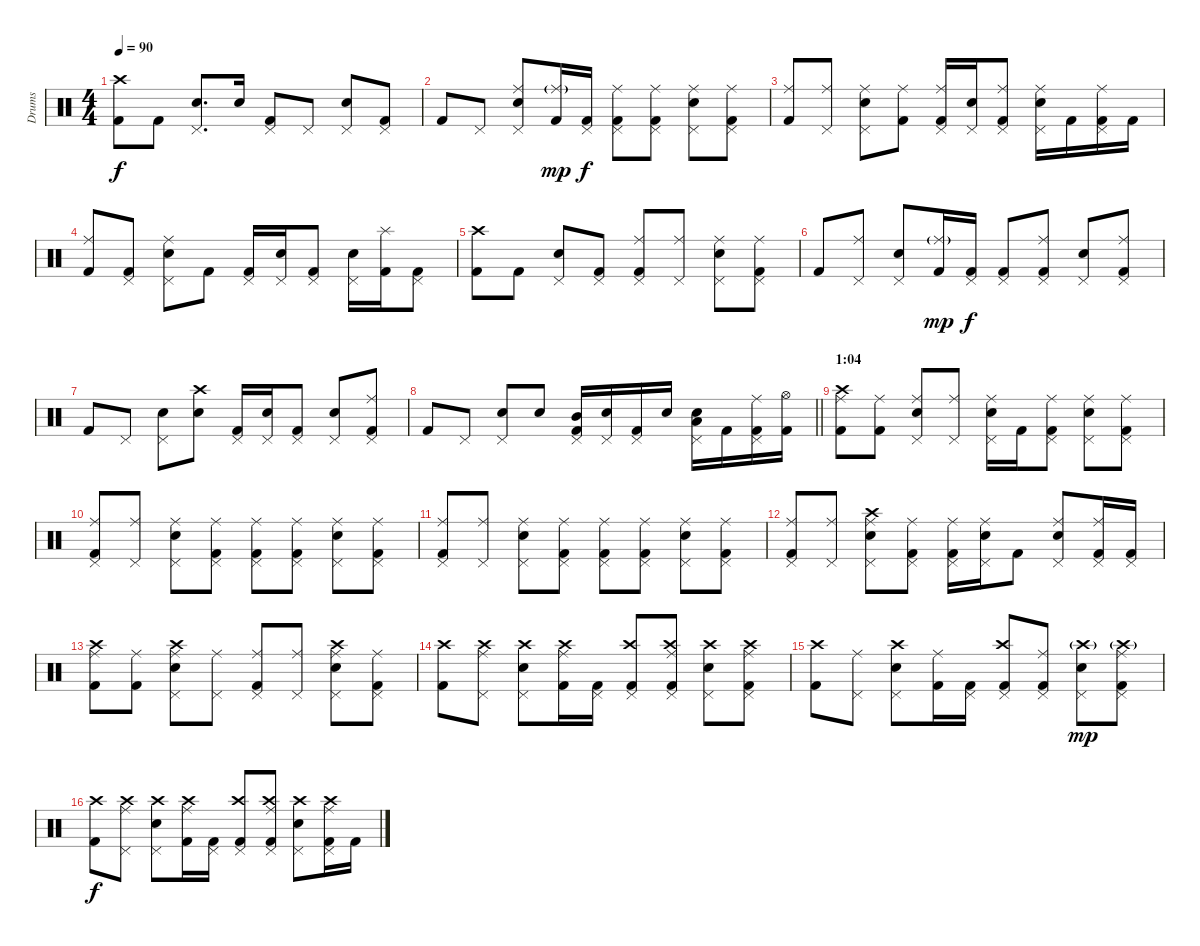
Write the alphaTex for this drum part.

\track ("Drums" "Drums") {instrument percussion}
\staff {score}
\articulation defaults
\ts (4 4)
\tempo 90
\clef neutral
\ks c
("Kick (hit) 2" "Crash high (hit)").8{dy f} "Kick (hit) 2".8 ("Snare (hit) 2" "Pedal Hi-Hat (hit)").8{d} "Snare (hit) 2".16 ("Kick (hit) 2" "Pedal Hi-Hat (hit)").8 "Pedal Hi-Hat (hit)".8 ("Snare (hit) 2" "Pedal Hi-Hat (hit)").8 ("Kick (hit) 2" "Pedal Hi-Hat (hit)").8 |
"Kick (hit) 2".8 "Pedal Hi-Hat (hit)".8 ("Snare (hit) 2" "Pedal Hi-Hat (hit)" "Ride (middle)").8 ("Kick (hit) 2" "Ride (middle)"{g}).16{dy mp} ("Kick (hit) 2" "Pedal Hi-Hat (hit)").16{dy f} ("Kick (hit) 2" "Pedal Hi-Hat (hit)" "Ride (middle)").8 ("Kick (hit) 2" "Pedal Hi-Hat (hit)" "Ride (middle)").8 ("Snare (hit) 2" "Pedal Hi-Hat (hit)" "Ride (middle)").8 ("Kick (hit) 2" "Pedal Hi-Hat (hit)" "Ride (middle)").8 |
("Kick (hit) 2" "Ride (middle)").8 ("Pedal Hi-Hat (hit)" "Ride (middle)").8 ("Snare (hit) 2" "Pedal Hi-Hat (hit)" "Ride (middle)").8 ("Kick (hit) 2" "Ride (middle)").8 ("Kick (hit) 2" "Pedal Hi-Hat (hit)" "Ride (middle)").16 ("Snare (hit) 2" "Pedal Hi-Hat (hit)").16 ("Kick (hit) 2" "Pedal Hi-Hat (hit)" "Ride (middle)").8 ("Snare (hit) 2" "Pedal Hi-Hat (hit)" "Ride (middle)").16 "Kick (hit) 2".16 ("Kick (hit) 2" "Pedal Hi-Hat (hit)" "Ride (middle)").16 "Kick (hit) 2".16 |
("Kick (hit) 2" "Ride (middle)").8 ("Kick (hit) 2" "Pedal Hi-Hat (hit)").8 ("Snare (hit) 2" "Pedal Hi-Hat (hit)" "Ride (middle)").8 "Kick (hit) 2".8 ("Kick (hit) 2" "Pedal Hi-Hat (hit)").16 ("Snare (hit) 2" "Pedal Hi-Hat (hit)").16 ("Kick (hit) 2" "Pedal Hi-Hat (hit)").8 ("Snare (hit) 2" "Pedal Hi-Hat (hit)").16 ("Kick (hit) 2" "Splash (hit)").16 ("Kick (hit) 2" "Pedal Hi-Hat (hit)").8 |
("Kick (hit) 2" "Crash high (hit)").8 "Kick (hit) 2".8 ("Snare (hit) 2" "Pedal Hi-Hat (hit)").8 ("Kick (hit) 2" "Pedal Hi-Hat (hit)").8 ("Kick (hit) 2" "Pedal Hi-Hat (hit)" "Ride (middle)").8 ("Pedal Hi-Hat (hit)" "Ride (middle)").8 ("Snare (hit) 2" "Pedal Hi-Hat (hit)" "Ride (middle)").8 ("Kick (hit) 2" "Pedal Hi-Hat (hit)" "Ride (middle)").8 |
"Kick (hit) 2".8 ("Pedal Hi-Hat (hit)" "Ride (middle)").8 ("Snare (hit) 2" "Pedal Hi-Hat (hit)").8 ("Kick (hit) 2" "Ride (middle)"{g}).16{dy mp} ("Kick (hit) 2" "Pedal Hi-Hat (hit)").16{dy f} ("Kick (hit) 2" "Pedal Hi-Hat (hit)").8 ("Kick (hit) 2" "Pedal Hi-Hat (hit)" "Ride (middle)").8 ("Snare (hit) 2" "Pedal Hi-Hat (hit)").8 ("Kick (hit) 2" "Pedal Hi-Hat (hit)" "Ride (middle)").8 |
"Kick (hit) 2".8 "Pedal Hi-Hat (hit)".8 ("Snare (hit) 2" "Pedal Hi-Hat (hit)").8 ("Snare (hit) 2" "Crash high (hit)").8 ("Kick (hit) 2" "Pedal Hi-Hat (hit)").16 ("Snare (hit) 2" "Pedal Hi-Hat (hit)").16 ("Kick (hit) 2" "Pedal Hi-Hat (hit)").8 ("Snare (hit) 2" "Pedal Hi-Hat (hit)").8 ("Kick (hit) 2" "Pedal Hi-Hat (hit)" "Ride (middle)").8 |
\barLineRight lightlight "Kick (hit) 2".8 "Pedal Hi-Hat (hit)".8
("Snare (hit) 2" "Pedal Hi-Hat (hit)").8 "Snare (hit) 2".8 ("Kick (hit) 2" "Pedal Hi-Hat (hit)" "Mid Tom (hit)").16 ("Snare (hit) 2" "Pedal Hi-Hat (hit)").16 ("Kick (hit) 2" "Pedal Hi-Hat (hit)").16 "Snare (hit) 2".16 ("Snare (hit) 2" "Pedal Hi-Hat (hit)" "Low Tom (hit)").16 "Kick (hit) 2".16 ("Kick (hit) 2" "Pedal Hi-Hat (hit)" "Ride (middle)").16 ("Kick (hit) 2" "Hi-Hat (open)").16 |
\section ("" "1:04")
("Kick (hit) 2" "Crash high (hit)" "Ride (middle)").8 ("Kick (hit) 2" "Ride (middle)").8 ("Snare (hit) 2" "Pedal Hi-Hat (hit)" "Ride (middle)").8 ("Pedal Hi-Hat (hit)" "Ride (middle)").8 ("Snare (hit) 2" "Pedal Hi-Hat (hit)" "Ride (middle)").16 "Kick (hit) 2".16 ("Kick (hit) 2" "Pedal Hi-Hat (hit)" "Ride (middle)").8 ("Snare (hit) 2" "Pedal Hi-Hat (hit)" "Ride (middle)").8 ("Kick (hit) 2" "Pedal Hi-Hat (hit)" "Ride (middle)").8 |
("Kick (hit) 2" "Pedal Hi-Hat (hit)" "Ride (middle)").8 ("Pedal Hi-Hat (hit)" "Ride (middle)").8 ("Snare (hit) 2" "Pedal Hi-Hat (hit)" "Ride (middle)").8 ("Kick (hit) 2" "Pedal Hi-Hat (hit)" "Ride (middle)").8 ("Kick (hit) 2" "Pedal Hi-Hat (hit)" "Ride (middle)").8 ("Kick (hit) 2" "Pedal Hi-Hat (hit)" "Ride (middle)").8 ("Snare (hit) 2" "Pedal Hi-Hat (hit)" "Ride (middle)").8 ("Kick (hit) 2" "Pedal Hi-Hat (hit)" "Ride (middle)").8 |
("Kick (hit) 2" "Pedal Hi-Hat (hit)" "Ride (middle)").8 ("Pedal Hi-Hat (hit)" "Ride (middle)").8 ("Snare (hit) 2" "Pedal Hi-Hat (hit)" "Ride (middle)").8 ("Kick (hit) 2" "Pedal Hi-Hat (hit)" "Ride (middle)").8 ("Kick (hit) 2" "Pedal Hi-Hat (hit)" "Ride (middle)").8 ("Kick (hit) 2" "Pedal Hi-Hat (hit)" "Ride (middle)").8 ("Snare (hit) 2" "Pedal Hi-Hat (hit)" "Ride (middle)").8 ("Kick (hit) 2" "Pedal Hi-Hat (hit)" "Ride (middle)").8 |
("Kick (hit) 2" "Pedal Hi-Hat (hit)" "Ride (middle)").8 ("Pedal Hi-Hat (hit)" "Ride (middle)").8 ("Snare (hit) 2" "Pedal Hi-Hat (hit)" "Crash high (hit)" "Ride (middle)").8 ("Kick (hit) 2" "Pedal Hi-Hat (hit)" "Ride (middle)").8 ("Kick (hit) 2" "Pedal Hi-Hat (hit)" "Ride (middle)").16 ("Snare (hit) 2" "Pedal Hi-Hat (hit)" "Ride (middle)").16 "Kick (hit) 2".8 ("Snare (hit) 2" "Pedal Hi-Hat (hit)" "Ride (middle)").8 ("Kick (hit) 2" "Pedal Hi-Hat (hit)" "Ride (middle)").16 ("Kick (hit) 2" "Pedal Hi-Hat (hit)").16 |
("Kick (hit) 2" "Crash high (hit)" "Ride (middle)").8 ("Kick (hit) 2" "Ride (middle)").8 ("Snare (hit) 2" "Pedal Hi-Hat (hit)" "Crash high (hit)" "Ride (middle)").8 ("Pedal Hi-Hat (hit)" "Ride (middle)").8 ("Kick (hit) 2" "Pedal Hi-Hat (hit)" "Ride (middle)").8 ("Pedal Hi-Hat (hit)" "Ride (middle)").8 ("Snare (hit) 2" "Pedal Hi-Hat (hit)" "Crash high (hit)" "Ride (middle)").8 ("Kick (hit) 2" "Pedal Hi-Hat (hit)" "Ride (middle)").8 |
("Kick (hit) 2" "Crash high (hit)").8 ("Pedal Hi-Hat (hit)" "Crash high (hit)" "Ride (middle)").8 ("Snare (hit) 2" "Pedal Hi-Hat (hit)" "Crash high (hit)").8 ("Kick (hit) 2" "Crash high (hit)" "Ride (middle)").16 ("Kick (hit) 2" "Pedal Hi-Hat (hit)").16 ("Kick (hit) 2" "Pedal Hi-Hat (hit)" "Crash high (hit)").8 ("Kick (hit) 2" "Pedal Hi-Hat (hit)" "Crash high (hit)" "Ride (middle)").8 ("Snare (hit) 2" "Pedal Hi-Hat (hit)" "Crash high (hit)").8 ("Kick (hit) 2" "Pedal Hi-Hat (hit)" "Crash high (hit)" "Ride (middle)").8 |
("Kick (hit) 2" "Crash high (hit)").8 ("Pedal Hi-Hat (hit)" "Ride (middle)").8 ("Snare (hit) 2" "Pedal Hi-Hat (hit)" "Crash high (hit)").8 ("Kick (hit) 2" "Ride (middle)").16 ("Kick (hit) 2" "Pedal Hi-Hat (hit)").16 ("Kick (hit) 2" "Pedal Hi-Hat (hit)" "Crash high (hit)").8 ("Kick (hit) 2" "Pedal Hi-Hat (hit)" "Ride (middle)").8 ("Snare (hit) 2" "Pedal Hi-Hat (hit)" "Crash high (hit)"{g}).8{dy mp} ("Kick (hit) 2" "Pedal Hi-Hat (hit)" "Crash high (hit)"{g} "Ride (middle)").8 |
("Kick (hit) 2" "Crash high (hit)").8{dy f} ("Pedal Hi-Hat (hit)" "Crash high (hit)" "Ride (middle)").8 ("Snare (hit) 2" "Pedal Hi-Hat (hit)" "Crash high (hit)").8 ("Kick (hit) 2" "Crash high (hit)" "Ride (middle)").16 ("Kick (hit) 2" "Pedal Hi-Hat (hit)").16 ("Kick (hit) 2" "Pedal Hi-Hat (hit)" "Crash high (hit)").8 ("Kick (hit) 2" "Pedal Hi-Hat (hit)" "Crash high (hit)" "Ride (middle)").8 ("Snare (hit) 2" "Pedal Hi-Hat (hit)" "Crash high (hit)").8 ("Kick (hit) 2" "Pedal Hi-Hat (hit)" "Crash high (hit)" "Ride (middle)").16 "Kick (hit) 2".16
